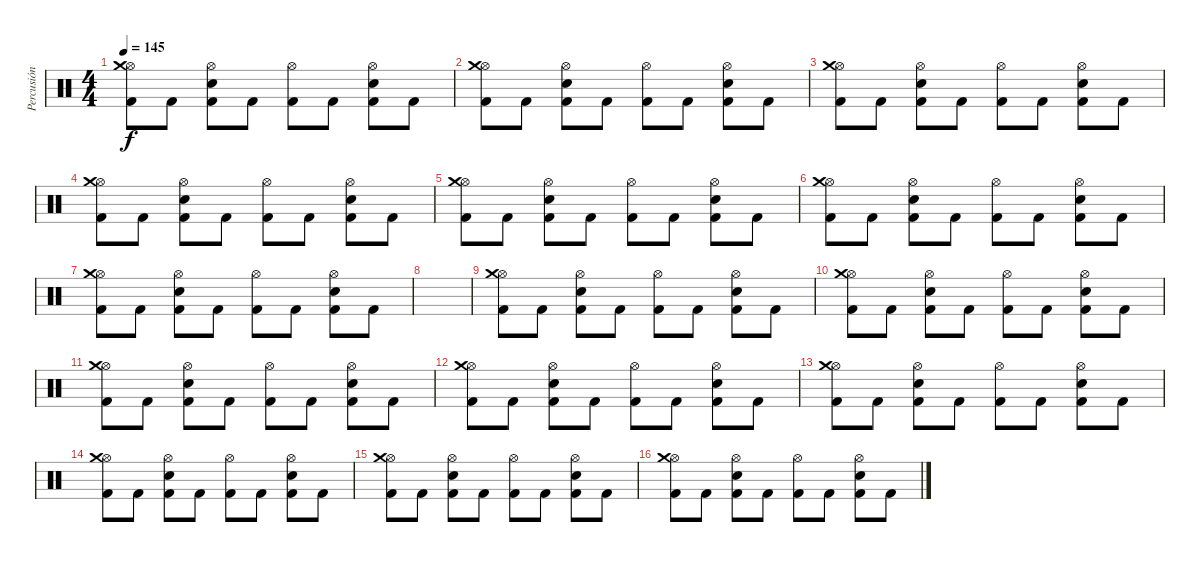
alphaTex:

\track ("Percusión" "Percusión") {instrument percussion}
\staff {score}
\articulation defaults
\ts (4 4)
\tempo 145
\clef neutral
\ks c
("Hi-Hat (open)" "Kick (hit) 2" "Crash medium (hit)").8{dy f} "Kick (hit) 2".8 ("Hi-Hat (open)" "Electric Snare (hit)" "Kick (hit) 2").8 "Kick (hit) 2".8 ("Hi-Hat (open)" "Kick (hit) 2").8 "Kick (hit) 2".8 ("Hi-Hat (open)" "Electric Snare (hit)" "Kick (hit) 2").8 "Kick (hit) 2".8 |
("Hi-Hat (open)" "Kick (hit) 2" "Crash medium (hit)").8 "Kick (hit) 2".8 ("Hi-Hat (open)" "Electric Snare (hit)" "Kick (hit) 2").8 "Kick (hit) 2".8 ("Hi-Hat (open)" "Kick (hit) 2").8 "Kick (hit) 2".8 ("Hi-Hat (open)" "Electric Snare (hit)" "Kick (hit) 2").8 "Kick (hit) 2".8 |
("Hi-Hat (open)" "Kick (hit) 2" "Crash medium (hit)").8 "Kick (hit) 2".8 ("Hi-Hat (open)" "Electric Snare (hit)" "Kick (hit) 2").8 "Kick (hit) 2".8 ("Hi-Hat (open)" "Kick (hit) 2").8 "Kick (hit) 2".8 ("Hi-Hat (open)" "Electric Snare (hit)" "Kick (hit) 2").8 "Kick (hit) 2".8 |
("Hi-Hat (open)" "Kick (hit) 2" "Crash medium (hit)").8 "Kick (hit) 2".8 ("Hi-Hat (open)" "Electric Snare (hit)" "Kick (hit) 2").8 "Kick (hit) 2".8 ("Hi-Hat (open)" "Kick (hit) 2").8 "Kick (hit) 2".8 ("Hi-Hat (open)" "Electric Snare (hit)" "Kick (hit) 2").8 "Kick (hit) 2".8 |
("Hi-Hat (open)" "Kick (hit) 2" "Crash medium (hit)").8 "Kick (hit) 2".8 ("Hi-Hat (open)" "Electric Snare (hit)" "Kick (hit) 2").8 "Kick (hit) 2".8 ("Hi-Hat (open)" "Kick (hit) 2").8 "Kick (hit) 2".8 ("Hi-Hat (open)" "Electric Snare (hit)" "Kick (hit) 2").8 "Kick (hit) 2".8 |
("Hi-Hat (open)" "Kick (hit) 2" "Crash medium (hit)").8 "Kick (hit) 2".8 ("Hi-Hat (open)" "Electric Snare (hit)" "Kick (hit) 2").8 "Kick (hit) 2".8 ("Hi-Hat (open)" "Kick (hit) 2").8 "Kick (hit) 2".8 ("Hi-Hat (open)" "Electric Snare (hit)" "Kick (hit) 2").8 "Kick (hit) 2".8 |
("Hi-Hat (open)" "Kick (hit) 2" "Crash medium (hit)").8 "Kick (hit) 2".8 ("Hi-Hat (open)" "Electric Snare (hit)" "Kick (hit) 2").8 "Kick (hit) 2".8 ("Hi-Hat (open)" "Kick (hit) 2").8 "Kick (hit) 2".8 ("Hi-Hat (open)" "Electric Snare (hit)" "Kick (hit) 2").8 "Kick (hit) 2".8 |
|
("Hi-Hat (open)" "Kick (hit) 2" "Crash medium (hit)").8 "Kick (hit) 2".8 ("Hi-Hat (open)" "Electric Snare (hit)" "Kick (hit) 2").8 "Kick (hit) 2".8 ("Hi-Hat (open)" "Kick (hit) 2").8 "Kick (hit) 2".8 ("Hi-Hat (open)" "Electric Snare (hit)" "Kick (hit) 2").8 "Kick (hit) 2".8 |
("Hi-Hat (open)" "Kick (hit) 2" "Crash medium (hit)").8 "Kick (hit) 2".8 ("Hi-Hat (open)" "Electric Snare (hit)" "Kick (hit) 2").8 "Kick (hit) 2".8 ("Hi-Hat (open)" "Kick (hit) 2").8 "Kick (hit) 2".8 ("Hi-Hat (open)" "Electric Snare (hit)" "Kick (hit) 2").8 "Kick (hit) 2".8 |
("Hi-Hat (open)" "Kick (hit) 2" "Crash medium (hit)").8 "Kick (hit) 2".8 ("Hi-Hat (open)" "Electric Snare (hit)" "Kick (hit) 2").8 "Kick (hit) 2".8 ("Hi-Hat (open)" "Kick (hit) 2").8 "Kick (hit) 2".8 ("Hi-Hat (open)" "Electric Snare (hit)" "Kick (hit) 2").8 "Kick (hit) 2".8 |
("Hi-Hat (open)" "Kick (hit) 2" "Crash medium (hit)").8 "Kick (hit) 2".8 ("Hi-Hat (open)" "Electric Snare (hit)" "Kick (hit) 2").8 "Kick (hit) 2".8 ("Hi-Hat (open)" "Kick (hit) 2").8 "Kick (hit) 2".8 ("Hi-Hat (open)" "Electric Snare (hit)" "Kick (hit) 2").8 "Kick (hit) 2".8 |
("Hi-Hat (open)" "Kick (hit) 2" "Crash medium (hit)").8 "Kick (hit) 2".8 ("Hi-Hat (open)" "Electric Snare (hit)" "Kick (hit) 2").8 "Kick (hit) 2".8 ("Hi-Hat (open)" "Kick (hit) 2").8 "Kick (hit) 2".8 ("Hi-Hat (open)" "Electric Snare (hit)" "Kick (hit) 2").8 "Kick (hit) 2".8 |
("Hi-Hat (open)" "Kick (hit) 2" "Crash medium (hit)").8 "Kick (hit) 2".8 ("Hi-Hat (open)" "Electric Snare (hit)" "Kick (hit) 2").8 "Kick (hit) 2".8 ("Hi-Hat (open)" "Kick (hit) 2").8 "Kick (hit) 2".8 ("Hi-Hat (open)" "Electric Snare (hit)" "Kick (hit) 2").8 "Kick (hit) 2".8 |
("Hi-Hat (open)" "Kick (hit) 2" "Crash medium (hit)").8 "Kick (hit) 2".8 ("Hi-Hat (open)" "Electric Snare (hit)" "Kick (hit) 2").8 "Kick (hit) 2".8 ("Hi-Hat (open)" "Kick (hit) 2").8 "Kick (hit) 2".8 ("Hi-Hat (open)" "Electric Snare (hit)" "Kick (hit) 2").8 "Kick (hit) 2".8 |
("Hi-Hat (open)" "Kick (hit) 2" "Crash medium (hit)").8 "Kick (hit) 2".8 ("Hi-Hat (open)" "Electric Snare (hit)" "Kick (hit) 2").8 "Kick (hit) 2".8 ("Hi-Hat (open)" "Kick (hit) 2").8 "Kick (hit) 2".8 ("Hi-Hat (open)" "Electric Snare (hit)" "Kick (hit) 2").8 "Kick (hit) 2".8
